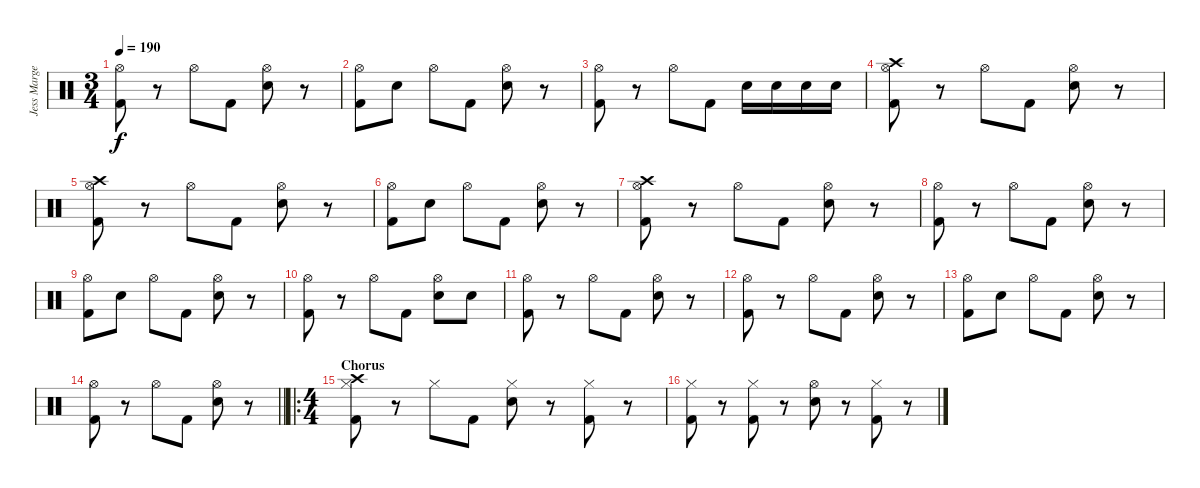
\track ("Jess Margera" "Jess Marge") {instrument percussion}
\staff {score}
\articulation defaults
\ts (3 4)
\tempo 190
\clef neutral
\ks c
("Hi-Hat (open)" "Kick (hit) 2").8{dy f} r.8 "Hi-Hat (open)".8 "Kick (hit) 2".8 ("Hi-Hat (open)" "Electric Snare (hit)").8 r.8 |
("Hi-Hat (open)" "Kick (hit) 2").8 "Electric Snare (hit)".8 "Hi-Hat (open)".8 "Kick (hit) 2".8 ("Hi-Hat (open)" "Electric Snare (hit)").8 r.8 |
("Hi-Hat (open)" "Kick (hit) 2").8 r.8 "Hi-Hat (open)".8 "Kick (hit) 2".8 "Electric Snare (hit)".16 "Electric Snare (hit)".16 "Electric Snare (hit)".16 "Electric Snare (hit)".16 |
("Crash high (hit)" "Hi-Hat (open)" "Kick (hit) 2").8 r.8 "Hi-Hat (open)".8 "Kick (hit) 2".8 ("Hi-Hat (open)" "Electric Snare (hit)").8 r.8 |
("Crash high (hit)" "Hi-Hat (open)" "Kick (hit) 2").8 r.8 "Hi-Hat (open)".8 "Kick (hit) 2".8 ("Hi-Hat (open)" "Electric Snare (hit)").8 r.8 |
("Hi-Hat (open)" "Kick (hit) 2").8 "Electric Snare (hit)".8 "Hi-Hat (open)".8 "Kick (hit) 2".8 ("Hi-Hat (open)" "Electric Snare (hit)").8 r.8 |
("Crash high (hit)" "Hi-Hat (open)" "Kick (hit) 2").8 r.8 "Hi-Hat (open)".8 "Kick (hit) 2".8 ("Hi-Hat (open)" "Electric Snare (hit)").8 r.8 |
("Hi-Hat (open)" "Kick (hit) 2").8 r.8 "Hi-Hat (open)".8 "Kick (hit) 2".8 ("Hi-Hat (open)" "Electric Snare (hit)").8 r.8 |
("Hi-Hat (open)" "Kick (hit) 2").8 "Electric Snare (hit)".8 "Hi-Hat (open)".8 "Kick (hit) 2".8 ("Hi-Hat (open)" "Electric Snare (hit)").8 r.8 |
("Hi-Hat (open)" "Kick (hit) 2").8 r.8 "Hi-Hat (open)".8 "Kick (hit) 2".8 ("Hi-Hat (open)" "Electric Snare (hit)").8 "Electric Snare (hit)".8 |
("Hi-Hat (open)" "Kick (hit) 2").8 r.8 "Hi-Hat (open)".8 "Kick (hit) 2".8 ("Hi-Hat (open)" "Electric Snare (hit)").8 r.8 |
("Hi-Hat (open)" "Kick (hit) 2").8 r.8 "Hi-Hat (open)".8 "Kick (hit) 2".8 ("Hi-Hat (open)" "Electric Snare (hit)").8 r.8 |
("Hi-Hat (open)" "Kick (hit) 2").8 "Electric Snare (hit)".8 "Hi-Hat (open)".8 "Kick (hit) 2".8 ("Hi-Hat (open)" "Electric Snare (hit)").8 r.8 |
\barLineRight lightlight
("Hi-Hat (open)" "Kick (hit) 2").8 r.8 "Hi-Hat (open)".8 "Kick (hit) 2".8 ("Hi-Hat (open)" "Electric Snare (hit)").8 r.8 |
\ro
\ts (4 4)
\section ("" "Chorus")
("Crash high (hit)" "Hi-Hat (closed)" "Kick (hit) 2").8 r.8 "Hi-Hat (closed)".8 "Kick (hit) 2".8 ("Hi-Hat (closed)" "Electric Snare (hit)").8 r.8 ("Hi-Hat (closed)" "Kick (hit) 2").8 r.8 |
("Hi-Hat (closed)" "Kick (hit) 2").8 r.8 ("Hi-Hat (closed)" "Kick (hit) 2").8 r.8 ("Hi-Hat (open)" "Electric Snare (hit)").8 r.8 ("Hi-Hat (closed)" "Kick (hit) 2").8 r.8
